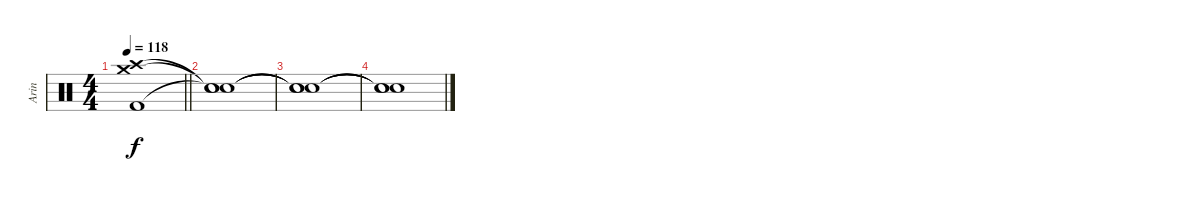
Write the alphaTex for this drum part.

\track ("Arin" "Arin") {instrument percussion}
\staff {score}
\articulation defaults
\ts (4 4)
\tempo 118
\clef neutral
\barLineRight lightlight
\ks c
("Crash medium (hit)"{t} "Crash high (hit)"{t} "Kick (hit) 2"{t}).1{dy f} |
("Snare (hit)"{t} "Snare (hit)"{t} "Snare (hit)"{t}).1 |
("Snare (hit)"{t} "Snare (hit)"{t} "Snare (hit)"{t}).1 |
("Snare (hit)"{t} "Snare (hit)"{t} "Snare (hit)"{t}).1
